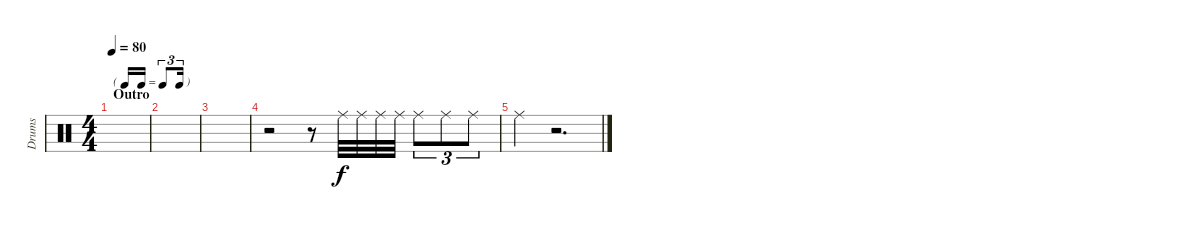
\track ("Drums" "Drums") {instrument percussion}
\staff {score}
\articulation defaults
\ts (4 4)
\tf triplet16th
\section ("" "Outro")
\tempo 80
\clef neutral
\ks c
|
|
|
r.2 r.8 "Ride (middle)".32{dy f} "Ride (middle)".32 "Ride (middle)".32 "Ride (middle)".32 "Ride (middle)".8{tu (3 2)} "Ride (middle)".8{tu (3 2)} "Ride (middle)".8{tu (3 2)} |
"Ride (middle)".4 r.2{d}
